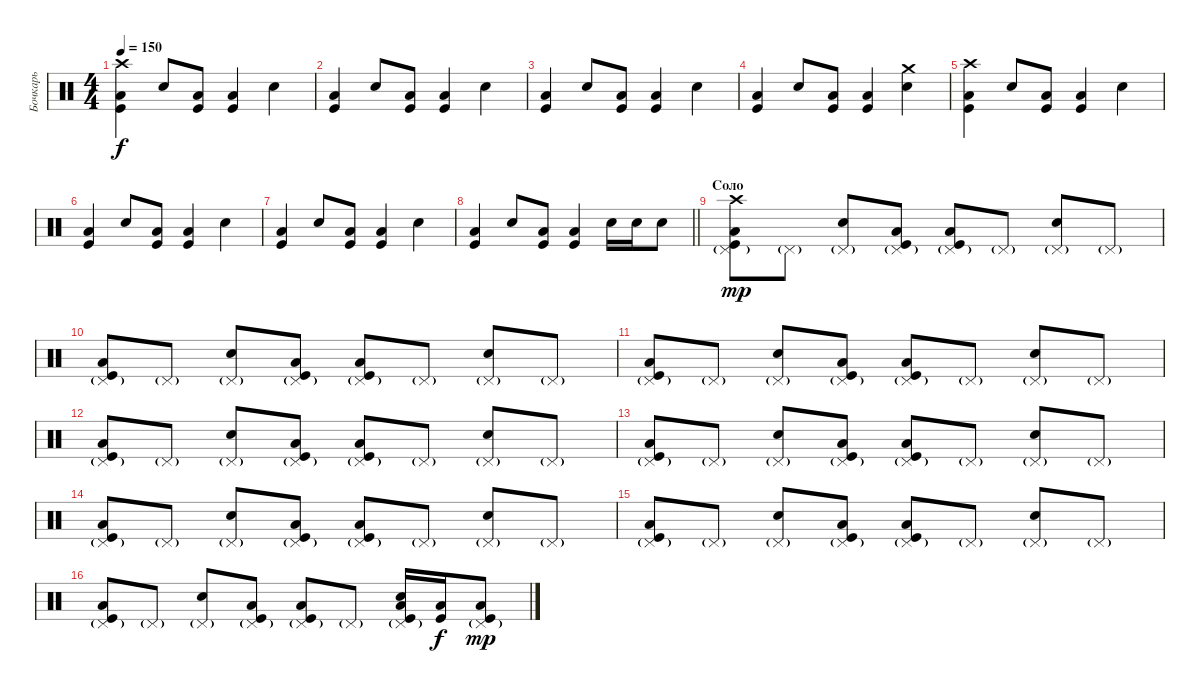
\track ("Бочкарь" "Бочкарь") {instrument percussion}
\staff {score}
\articulation defaults
\ts (4 4)
\tempo 150
\clef neutral
\ks c
("Crash high (hit)" "Low Tom (hit)" "Kick (hit)").4{dy f} "Electric Snare (hit)".8 ("Low Tom (hit)" "Kick (hit)").8 ("Low Tom (hit)" "Kick (hit)").4 "Electric Snare (hit)".4 |
("Low Tom (hit)" "Kick (hit)").4 "Electric Snare (hit)".8 ("Low Tom (hit)" "Kick (hit)").8 ("Low Tom (hit)" "Kick (hit)").4 "Electric Snare (hit)".4 |
("Low Tom (hit)" "Kick (hit)").4 "Electric Snare (hit)".8 ("Low Tom (hit)" "Kick (hit)").8 ("Low Tom (hit)" "Kick (hit)").4 "Electric Snare (hit)".4 |
("Low Tom (hit)" "Kick (hit)").4 "Electric Snare (hit)".8 ("Low Tom (hit)" "Kick (hit)").8 ("Low Tom (hit)" "Kick (hit)").4 ("Crash medium (hit)" "Electric Snare (hit)").4 |
("Crash high (hit)" "Low Tom (hit)" "Kick (hit)").4 "Electric Snare (hit)".8 ("Low Tom (hit)" "Kick (hit)").8 ("Low Tom (hit)" "Kick (hit)").4 "Electric Snare (hit)".4 |
("Low Tom (hit)" "Kick (hit)").4 "Electric Snare (hit)".8 ("Low Tom (hit)" "Kick (hit)").8 ("Low Tom (hit)" "Kick (hit)").4 "Electric Snare (hit)".4 |
("Low Tom (hit)" "Kick (hit)").4 "Electric Snare (hit)".8 ("Low Tom (hit)" "Kick (hit)").8 ("Low Tom (hit)" "Kick (hit)").4 "Electric Snare (hit)".4 |
\barLineRight lightlight
("Low Tom (hit)" "Kick (hit)").4 "Electric Snare (hit)".8 ("Low Tom (hit)" "Kick (hit)").8 ("Low Tom (hit)" "Kick (hit)").4 "Snare (hit) 2".16 "Snare (hit) 2".16 "Electric Snare (hit)".8 |
\section ("" "Соло")
("Pedal Hi-Hat (hit)"{g} "Crash high (hit)" "Low Tom (hit)" "Kick (hit)").8{dy mp} "Pedal Hi-Hat (hit)"{g}.8 ("Pedal Hi-Hat (hit)"{g} "Electric Snare (hit)").8 ("Pedal Hi-Hat (hit)"{g} "Low Tom (hit)" "Kick (hit)").8 ("Pedal Hi-Hat (hit)"{g} "Low Tom (hit)" "Kick (hit)").8 "Pedal Hi-Hat (hit)"{g}.8 ("Pedal Hi-Hat (hit)"{g} "Electric Snare (hit)").8 "Pedal Hi-Hat (hit)"{g}.8 |
("Pedal Hi-Hat (hit)"{g} "Low Tom (hit)" "Kick (hit)").8 "Pedal Hi-Hat (hit)"{g}.8 ("Pedal Hi-Hat (hit)"{g} "Electric Snare (hit)").8 ("Pedal Hi-Hat (hit)"{g} "Low Tom (hit)" "Kick (hit)").8 ("Pedal Hi-Hat (hit)"{g} "Low Tom (hit)" "Kick (hit)").8 "Pedal Hi-Hat (hit)"{g}.8 ("Pedal Hi-Hat (hit)"{g} "Electric Snare (hit)").8 "Pedal Hi-Hat (hit)"{g}.8 |
("Pedal Hi-Hat (hit)"{g} "Low Tom (hit)" "Kick (hit)").8 "Pedal Hi-Hat (hit)"{g}.8 ("Pedal Hi-Hat (hit)"{g} "Electric Snare (hit)").8 ("Pedal Hi-Hat (hit)"{g} "Low Tom (hit)" "Kick (hit)").8 ("Pedal Hi-Hat (hit)"{g} "Low Tom (hit)" "Kick (hit)").8 "Pedal Hi-Hat (hit)"{g}.8 ("Pedal Hi-Hat (hit)"{g} "Electric Snare (hit)").8 "Pedal Hi-Hat (hit)"{g}.8 |
("Pedal Hi-Hat (hit)"{g} "Low Tom (hit)" "Kick (hit)").8 "Pedal Hi-Hat (hit)"{g}.8 ("Pedal Hi-Hat (hit)"{g} "Electric Snare (hit)").8 ("Pedal Hi-Hat (hit)"{g} "Low Tom (hit)" "Kick (hit)").8 ("Pedal Hi-Hat (hit)"{g} "Low Tom (hit)" "Kick (hit)").8 "Pedal Hi-Hat (hit)"{g}.8 ("Pedal Hi-Hat (hit)"{g} "Electric Snare (hit)").8 "Pedal Hi-Hat (hit)"{g}.8 |
("Pedal Hi-Hat (hit)"{g} "Low Tom (hit)" "Kick (hit)").8 "Pedal Hi-Hat (hit)"{g}.8 ("Pedal Hi-Hat (hit)"{g} "Electric Snare (hit)").8 ("Pedal Hi-Hat (hit)"{g} "Low Tom (hit)" "Kick (hit)").8 ("Pedal Hi-Hat (hit)"{g} "Low Tom (hit)" "Kick (hit)").8 "Pedal Hi-Hat (hit)"{g}.8 ("Pedal Hi-Hat (hit)"{g} "Electric Snare (hit)").8 "Pedal Hi-Hat (hit)"{g}.8 |
("Pedal Hi-Hat (hit)"{g} "Low Tom (hit)" "Kick (hit)").8 "Pedal Hi-Hat (hit)"{g}.8 ("Pedal Hi-Hat (hit)"{g} "Electric Snare (hit)").8 ("Pedal Hi-Hat (hit)"{g} "Low Tom (hit)" "Kick (hit)").8 ("Pedal Hi-Hat (hit)"{g} "Low Tom (hit)" "Kick (hit)").8 "Pedal Hi-Hat (hit)"{g}.8 ("Pedal Hi-Hat (hit)"{g} "Electric Snare (hit)").8 "Pedal Hi-Hat (hit)"{g}.8 |
("Pedal Hi-Hat (hit)"{g} "Low Tom (hit)" "Kick (hit)").8 "Pedal Hi-Hat (hit)"{g}.8 ("Pedal Hi-Hat (hit)"{g} "Electric Snare (hit)").8 ("Pedal Hi-Hat (hit)"{g} "Low Tom (hit)" "Kick (hit)").8 ("Pedal Hi-Hat (hit)"{g} "Low Tom (hit)" "Kick (hit)").8 "Pedal Hi-Hat (hit)"{g}.8 ("Pedal Hi-Hat (hit)"{g} "Electric Snare (hit)").8 "Pedal Hi-Hat (hit)"{g}.8 |
("Pedal Hi-Hat (hit)"{g} "Low Tom (hit)" "Kick (hit)").8 "Pedal Hi-Hat (hit)"{g}.8 ("Pedal Hi-Hat (hit)"{g} "Electric Snare (hit)").8 ("Pedal Hi-Hat (hit)"{g} "Low Tom (hit)" "Kick (hit)").8 ("Pedal Hi-Hat (hit)"{g} "Low Tom (hit)" "Kick (hit)").8 "Pedal Hi-Hat (hit)"{g}.8 ("Pedal Hi-Hat (hit)"{g} "Electric Snare (hit)" "Low Tom (hit)" "Kick (hit)").16 ("Low Tom (hit)" "Kick (hit)").16{dy f} ("Pedal Hi-Hat (hit)"{g} "Low Tom (hit)" "Kick (hit)").8{dy mp}
